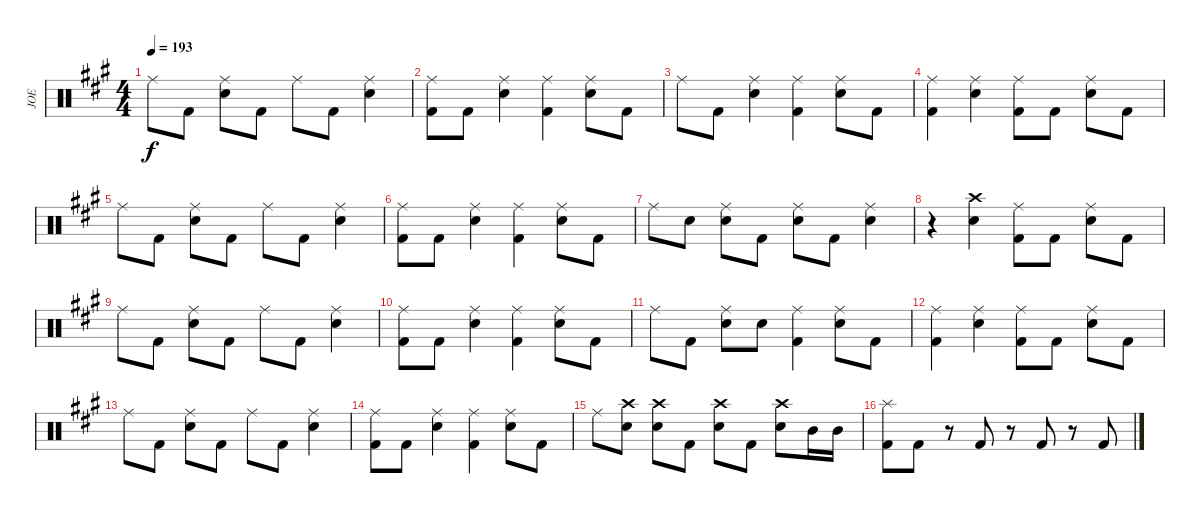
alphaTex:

\track ("JOE" "JOE") {instrument percussion}
\staff {score}
\articulation defaults
\ts (4 4)
\tempo 193
\clef neutral
\ks a "Ride (middle)".8{dy f} "Kick (hit) 2".8
("Ride (middle)" "Snare (hit) 2").8 "Kick (hit) 2".8 "Ride (middle)".8 "Kick (hit) 2".8 ("Ride (middle)" "Snare (hit) 2").4 |
("Ride (middle)" "Kick (hit) 2").8 "Kick (hit) 2".8 ("Ride (middle)" "Snare (hit) 2").4 ("Ride (middle)" "Kick (hit) 2").4 ("Ride (middle)" "Snare (hit) 2").8 "Kick (hit) 2".8 |
"Ride (middle)".8 "Kick (hit) 2".8 ("Ride (middle)" "Snare (hit) 2").4 ("Ride (middle)" "Kick (hit) 2").4 ("Ride (middle)" "Snare (hit) 2").8 "Kick (hit) 2".8 |
("Ride (middle)" "Kick (hit) 2").4 ("Ride (middle)" "Snare (hit) 2").4 ("Ride (middle)" "Kick (hit) 2").8 "Kick (hit) 2".8 ("Ride (middle)" "Snare (hit) 2").8 "Kick (hit) 2".8 |
"Ride (middle)".8 "Kick (hit) 2".8 ("Ride (middle)" "Snare (hit) 2").8 "Kick (hit) 2".8 "Ride (middle)".8 "Kick (hit) 2".8 ("Ride (middle)" "Snare (hit) 2").4 |
("Ride (middle)" "Kick (hit) 2").8 "Kick (hit) 2".8 ("Ride (middle)" "Snare (hit) 2").4 ("Ride (middle)" "Kick (hit) 2").4 ("Ride (middle)" "Snare (hit) 2").8 "Kick (hit) 2".8 |
"Ride (middle)".8 "Snare (hit) 2".8 ("Ride (middle)" "Snare (hit) 2").8 "Kick (hit) 2".8 ("Ride (middle)" "Snare (hit) 2").8 "Kick (hit) 2".8 ("Ride (middle)" "Snare (hit) 2").4 |
r.4 ("Crash high (hit)" "Snare (hit) 2").4 ("Ride (middle)" "Kick (hit) 2").8 "Kick (hit) 2".8 ("Ride (middle)" "Snare (hit) 2").8 "Kick (hit) 2".8 |
"Ride (middle)".8 "Kick (hit) 2".8 ("Ride (middle)" "Snare (hit) 2").8 "Kick (hit) 2".8 "Ride (middle)".8 "Kick (hit) 2".8 ("Ride (middle)" "Snare (hit) 2").4 |
("Ride (middle)" "Kick (hit) 2").8 "Kick (hit) 2".8 ("Ride (middle)" "Snare (hit) 2").4 ("Ride (middle)" "Kick (hit) 2").4 ("Ride (middle)" "Snare (hit) 2").8 "Kick (hit) 2".8 |
"Ride (middle)".8 "Kick (hit) 2".8 ("Ride (middle)" "Snare (hit) 2").8 "Snare (hit) 2".8 ("Ride (middle)" "Kick (hit) 2").4 ("Ride (middle)" "Snare (hit) 2").8 "Kick (hit) 2".8 |
("Ride (middle)" "Kick (hit) 2").4 ("Ride (middle)" "Snare (hit) 2").4 ("Ride (middle)" "Kick (hit) 2").8 "Kick (hit) 2".8 ("Ride (middle)" "Snare (hit) 2").8 "Kick (hit) 2".8 |
"Ride (middle)".8 "Kick (hit) 2".8 ("Ride (middle)" "Snare (hit) 2").8 "Kick (hit) 2".8 "Ride (middle)".8 "Kick (hit) 2".8 ("Ride (middle)" "Snare (hit) 2").4 |
("Ride (middle)" "Kick (hit) 2").8 "Kick (hit) 2".8 ("Ride (middle)" "Snare (hit) 2").4 ("Ride (middle)" "Kick (hit) 2").4 ("Ride (middle)" "Snare (hit) 2").8 "Kick (hit) 2".8 |
"Ride (middle)".8 ("Crash high (hit)" "Snare (hit) 2").8 ("Crash high (hit)" "Snare (hit) 2").8 "Kick (hit) 2".8 ("Crash high (hit)" "Snare (hit) 2").8 "Kick (hit) 2".8 ("Crash high (hit)" "Snare (hit) 2").8 "Mid Tom (hit)".16 "Mid Tom (hit)".16 |
("Splash (hit)" "Kick (hit) 2").8 "Kick (hit) 2".8 r.8 "Kick (hit) 2".8 r.8 "Kick (hit) 2".8 r.8 "Kick (hit) 2".8
